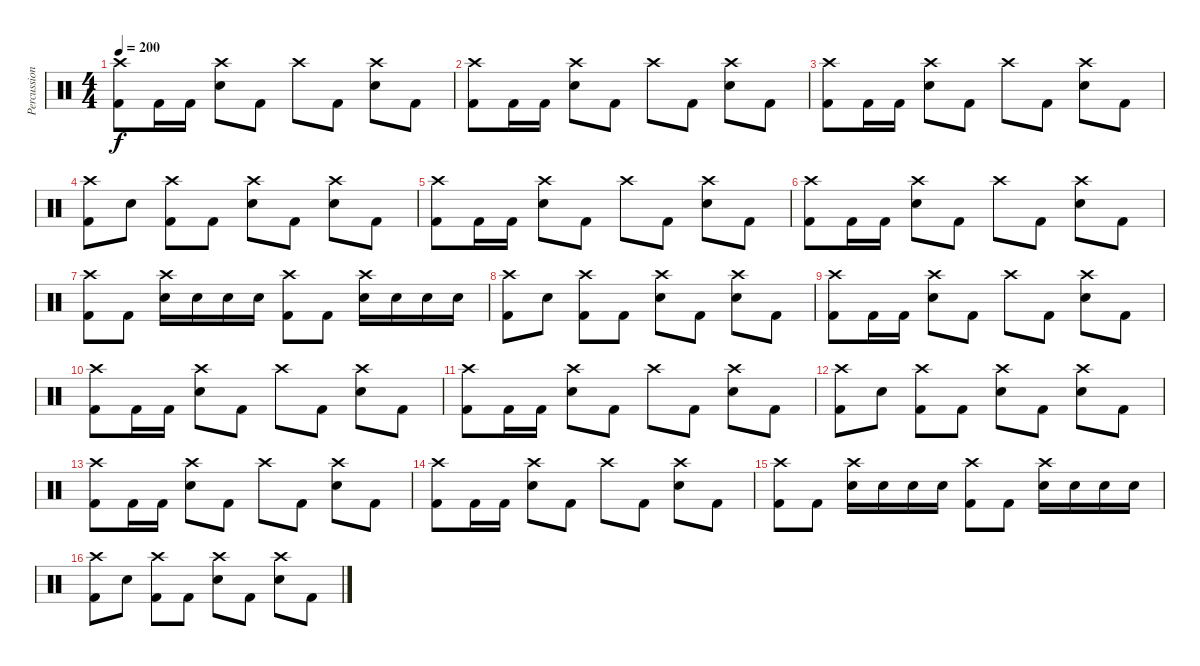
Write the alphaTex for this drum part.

\track ("Percussion" "Percussion") {instrument percussion}
\staff {score}
\articulation defaults
\ts (4 4)
\tempo 200
\clef neutral
\ks c
("Crash high (hit)" "Kick (hit) 2").8{dy f} "Kick (hit) 2".16 "Kick (hit) 2".16 ("Crash high (hit)" "Snare (hit) 2").8 "Kick (hit) 2".8 "Crash high (hit)".8 "Kick (hit) 2".8 ("Crash high (hit)" "Snare (hit) 2").8 "Kick (hit) 2".8 |
("Crash high (hit)" "Kick (hit) 2").8 "Kick (hit) 2".16 "Kick (hit) 2".16 ("Crash high (hit)" "Snare (hit) 2").8 "Kick (hit) 2".8 "Crash high (hit)".8 "Kick (hit) 2".8 ("Crash high (hit)" "Snare (hit) 2").8 "Kick (hit) 2".8 |
("Crash high (hit)" "Kick (hit) 2").8 "Kick (hit) 2".16 "Kick (hit) 2".16 ("Crash high (hit)" "Snare (hit) 2").8 "Kick (hit) 2".8 "Crash high (hit)".8 "Kick (hit) 2".8 ("Crash high (hit)" "Snare (hit) 2").8 "Kick (hit) 2".8 |
("Crash high (hit)" "Kick (hit) 2").8 "Snare (hit) 2".8 ("Crash high (hit)" "Kick (hit) 2").8 "Kick (hit) 2".8 ("Crash high (hit)" "Snare (hit) 2").8 "Kick (hit) 2".8 ("Crash high (hit)" "Snare (hit) 2").8 "Kick (hit) 2".8 |
("Crash high (hit)" "Kick (hit) 2").8 "Kick (hit) 2".16 "Kick (hit) 2".16 ("Crash high (hit)" "Snare (hit) 2").8 "Kick (hit) 2".8 "Crash high (hit)".8 "Kick (hit) 2".8 ("Crash high (hit)" "Snare (hit) 2").8 "Kick (hit) 2".8 |
("Crash high (hit)" "Kick (hit) 2").8 "Kick (hit) 2".16 "Kick (hit) 2".16 ("Crash high (hit)" "Snare (hit) 2").8 "Kick (hit) 2".8 "Crash high (hit)".8 "Kick (hit) 2".8 ("Crash high (hit)" "Snare (hit) 2").8 "Kick (hit) 2".8 |
("Crash high (hit)" "Kick (hit) 2").8 "Kick (hit) 2".8 ("Crash high (hit)" "Snare (hit) 2").16 "Snare (hit) 2".16 "Snare (hit) 2".16 "Snare (hit) 2".16 ("Crash high (hit)" "Kick (hit) 2").8 "Kick (hit) 2".8 ("Crash high (hit)" "Snare (hit) 2").16 "Snare (hit) 2".16 "Snare (hit) 2".16 "Snare (hit) 2".16 |
("Crash high (hit)" "Kick (hit) 2").8 "Snare (hit) 2".8 ("Crash high (hit)" "Kick (hit) 2").8 "Kick (hit) 2".8 ("Crash high (hit)" "Snare (hit) 2").8 "Kick (hit) 2".8 ("Crash high (hit)" "Snare (hit) 2").8 "Kick (hit) 2".8 |
("Crash high (hit)" "Kick (hit) 2").8 "Kick (hit) 2".16 "Kick (hit) 2".16 ("Crash high (hit)" "Snare (hit) 2").8 "Kick (hit) 2".8 "Crash high (hit)".8 "Kick (hit) 2".8 ("Crash high (hit)" "Snare (hit) 2").8 "Kick (hit) 2".8 |
("Crash high (hit)" "Kick (hit) 2").8 "Kick (hit) 2".16 "Kick (hit) 2".16 ("Crash high (hit)" "Snare (hit) 2").8 "Kick (hit) 2".8 "Crash high (hit)".8 "Kick (hit) 2".8 ("Crash high (hit)" "Snare (hit) 2").8 "Kick (hit) 2".8 |
("Crash high (hit)" "Kick (hit) 2").8 "Kick (hit) 2".16 "Kick (hit) 2".16 ("Crash high (hit)" "Snare (hit) 2").8 "Kick (hit) 2".8 "Crash high (hit)".8 "Kick (hit) 2".8 ("Crash high (hit)" "Snare (hit) 2").8 "Kick (hit) 2".8 |
("Crash high (hit)" "Kick (hit) 2").8 "Snare (hit) 2".8 ("Crash high (hit)" "Kick (hit) 2").8 "Kick (hit) 2".8 ("Crash high (hit)" "Snare (hit) 2").8 "Kick (hit) 2".8 ("Crash high (hit)" "Snare (hit) 2").8 "Kick (hit) 2".8 |
("Crash high (hit)" "Kick (hit) 2").8 "Kick (hit) 2".16 "Kick (hit) 2".16 ("Crash high (hit)" "Snare (hit) 2").8 "Kick (hit) 2".8 "Crash high (hit)".8 "Kick (hit) 2".8 ("Crash high (hit)" "Snare (hit) 2").8 "Kick (hit) 2".8 |
("Crash high (hit)" "Kick (hit) 2").8 "Kick (hit) 2".16 "Kick (hit) 2".16 ("Crash high (hit)" "Snare (hit) 2").8 "Kick (hit) 2".8 "Crash high (hit)".8 "Kick (hit) 2".8 ("Crash high (hit)" "Snare (hit) 2").8 "Kick (hit) 2".8 |
("Crash high (hit)" "Kick (hit) 2").8 "Kick (hit) 2".8 ("Crash high (hit)" "Snare (hit) 2").16 "Snare (hit) 2".16 "Snare (hit) 2".16 "Snare (hit) 2".16 ("Crash high (hit)" "Kick (hit) 2").8 "Kick (hit) 2".8 ("Crash high (hit)" "Snare (hit) 2").16 "Snare (hit) 2".16 "Snare (hit) 2".16 "Snare (hit) 2".16 |
("Crash high (hit)" "Kick (hit) 2").8 "Snare (hit) 2".8 ("Crash high (hit)" "Kick (hit) 2").8 "Kick (hit) 2".8 ("Crash high (hit)" "Snare (hit) 2").8 "Kick (hit) 2".8 ("Crash high (hit)" "Snare (hit) 2").8 "Kick (hit) 2".8
